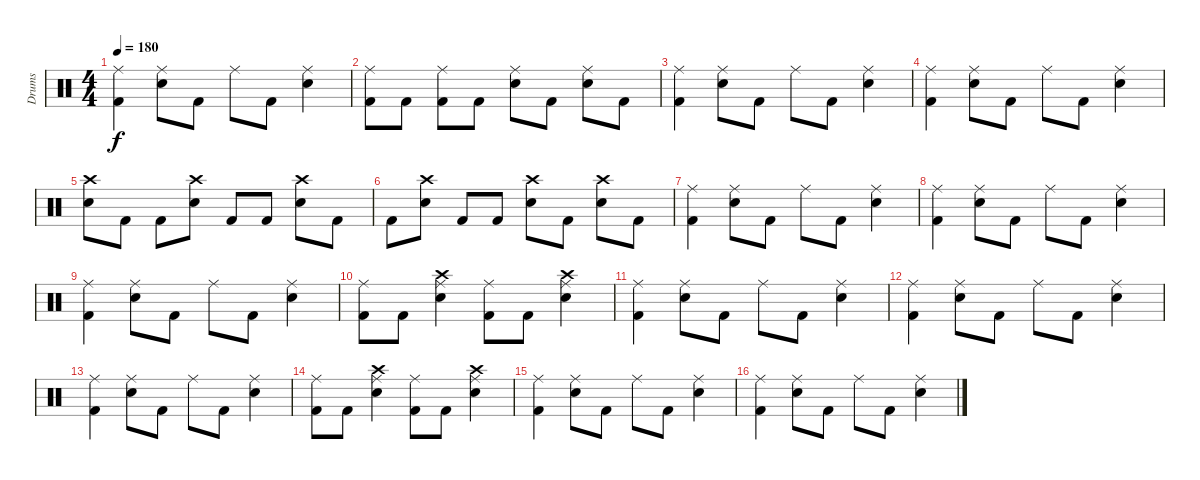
\track ("Drums" "Drums") {instrument percussion}
\staff {score}
\articulation defaults
\ts (4 4)
\tempo 180
\clef neutral
\ks c
("Ride (middle)" "Kick (hit) 2").4{dy f} ("Ride (middle)" "Electric Snare (hit)").8 "Kick (hit) 2".8 "Ride (middle)".8 "Kick (hit) 2".8 ("Ride (middle)" "Electric Snare (hit)").4 |
("Ride (middle)" "Kick (hit) 2").8 "Kick (hit) 2".8 ("Ride (middle)" "Kick (hit) 2").8 "Kick (hit) 2".8 ("Ride (middle)" "Electric Snare (hit)").8 "Kick (hit) 2".8 ("Ride (middle)" "Electric Snare (hit)").8 "Kick (hit) 2".8 |
("Ride (middle)" "Kick (hit) 2").4 ("Ride (middle)" "Electric Snare (hit)").8 "Kick (hit) 2".8 "Ride (middle)".8 "Kick (hit) 2".8 ("Ride (middle)" "Electric Snare (hit)").4 |
("Ride (middle)" "Kick (hit) 2").4 ("Ride (middle)" "Electric Snare (hit)").8 "Kick (hit) 2".8 "Ride (middle)".8 "Kick (hit) 2".8 ("Ride (middle)" "Electric Snare (hit)").4 |
("Crash high (hit)" "Electric Snare (hit)").8 "Kick (hit) 2".8 "Kick (hit) 2".8 ("Crash high (hit)" "Electric Snare (hit)").8 "Kick (hit) 2".8 "Kick (hit) 2".8 ("Crash high (hit)" "Electric Snare (hit)").8 "Kick (hit) 2".8 |
"Kick (hit) 2".8 ("Crash high (hit)" "Electric Snare (hit)").8 "Kick (hit) 2".8 "Kick (hit) 2".8 ("Crash high (hit)" "Electric Snare (hit)").8 "Kick (hit) 2".8 ("Crash high (hit)" "Electric Snare (hit)").8 "Kick (hit) 2".8 |
("Ride (middle)" "Kick (hit) 2").4 ("Ride (middle)" "Electric Snare (hit)").8 "Kick (hit) 2".8 "Ride (middle)".8 "Kick (hit) 2".8 ("Ride (middle)" "Electric Snare (hit)").4 |
("Ride (middle)" "Kick (hit) 2").4 ("Ride (middle)" "Electric Snare (hit)").8 "Kick (hit) 2".8 "Ride (middle)".8 "Kick (hit) 2".8 ("Ride (middle)" "Electric Snare (hit)").4 |
("Ride (middle)" "Kick (hit) 2").4 ("Ride (middle)" "Electric Snare (hit)").8 "Kick (hit) 2".8 "Ride (middle)".8 "Kick (hit) 2".8 ("Ride (middle)" "Electric Snare (hit)").4 |
("Ride (middle)" "Kick (hit) 2").8 "Kick (hit) 2".8 ("Ride (middle)" "Crash high (hit)" "Electric Snare (hit)").4 ("Ride (middle)" "Kick (hit) 2").8 "Kick (hit) 2".8 ("Ride (middle)" "Crash high (hit)" "Electric Snare (hit)").4 |
("Ride (middle)" "Kick (hit) 2").4 ("Ride (middle)" "Electric Snare (hit)").8 "Kick (hit) 2".8 "Ride (middle)".8 "Kick (hit) 2".8 ("Ride (middle)" "Electric Snare (hit)").4 |
("Ride (middle)" "Kick (hit) 2").4 ("Ride (middle)" "Electric Snare (hit)").8 "Kick (hit) 2".8 "Ride (middle)".8 "Kick (hit) 2".8 ("Ride (middle)" "Electric Snare (hit)").4 |
("Ride (middle)" "Kick (hit) 2").4 ("Ride (middle)" "Electric Snare (hit)").8 "Kick (hit) 2".8 "Ride (middle)".8 "Kick (hit) 2".8 ("Ride (middle)" "Electric Snare (hit)").4 |
("Ride (middle)" "Kick (hit) 2").8 "Kick (hit) 2".8 ("Ride (middle)" "Crash high (hit)" "Electric Snare (hit)").4 ("Ride (middle)" "Kick (hit) 2").8 "Kick (hit) 2".8 ("Ride (middle)" "Crash high (hit)" "Electric Snare (hit)").4 |
("Ride (middle)" "Kick (hit) 2").4 ("Ride (middle)" "Electric Snare (hit)").8 "Kick (hit) 2".8 "Ride (middle)".8 "Kick (hit) 2".8 ("Ride (middle)" "Electric Snare (hit)").4 |
("Ride (middle)" "Kick (hit) 2").4 ("Ride (middle)" "Electric Snare (hit)").8 "Kick (hit) 2".8 "Ride (middle)".8 "Kick (hit) 2".8 ("Ride (middle)" "Electric Snare (hit)").4
